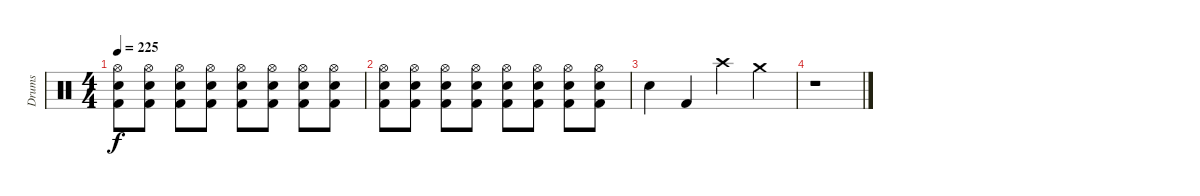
\track ("Drums" "Drums") {instrument percussion}
\staff {score}
\articulation defaults
\ts (4 4)
\tempo 225
\clef neutral
\ks c
("Hi-Hat (open)" "Electric Snare (hit)" "Kick (hit) 2").8{dy f} ("Hi-Hat (open)" "Electric Snare (hit)" "Kick (hit) 2").8 ("Hi-Hat (open)" "Electric Snare (hit)" "Kick (hit) 2").8 ("Hi-Hat (open)" "Electric Snare (hit)" "Kick (hit) 2").8 ("Hi-Hat (open)" "Electric Snare (hit)" "Kick (hit) 2").8 ("Hi-Hat (open)" "Electric Snare (hit)" "Kick (hit) 2").8 ("Hi-Hat (open)" "Electric Snare (hit)" "Kick (hit) 2").8 ("Hi-Hat (open)" "Electric Snare (hit)" "Kick (hit) 2").8 |
("Hi-Hat (open)" "Electric Snare (hit)" "Kick (hit) 2").8 ("Hi-Hat (open)" "Electric Snare (hit)" "Kick (hit) 2").8 ("Hi-Hat (open)" "Electric Snare (hit)" "Kick (hit) 2").8 ("Hi-Hat (open)" "Electric Snare (hit)" "Kick (hit) 2").8 ("Hi-Hat (open)" "Electric Snare (hit)" "Kick (hit) 2").8 ("Hi-Hat (open)" "Electric Snare (hit)" "Kick (hit) 2").8 ("Hi-Hat (open)" "Electric Snare (hit)" "Kick (hit) 2").8 ("Hi-Hat (open)" "Electric Snare (hit)" "Kick (hit) 2").8 |
"Electric Snare (hit)".4 "Kick (hit) 2".4 "Crash high (hit)".4 "Crash medium (hit)".4 |
r.1
